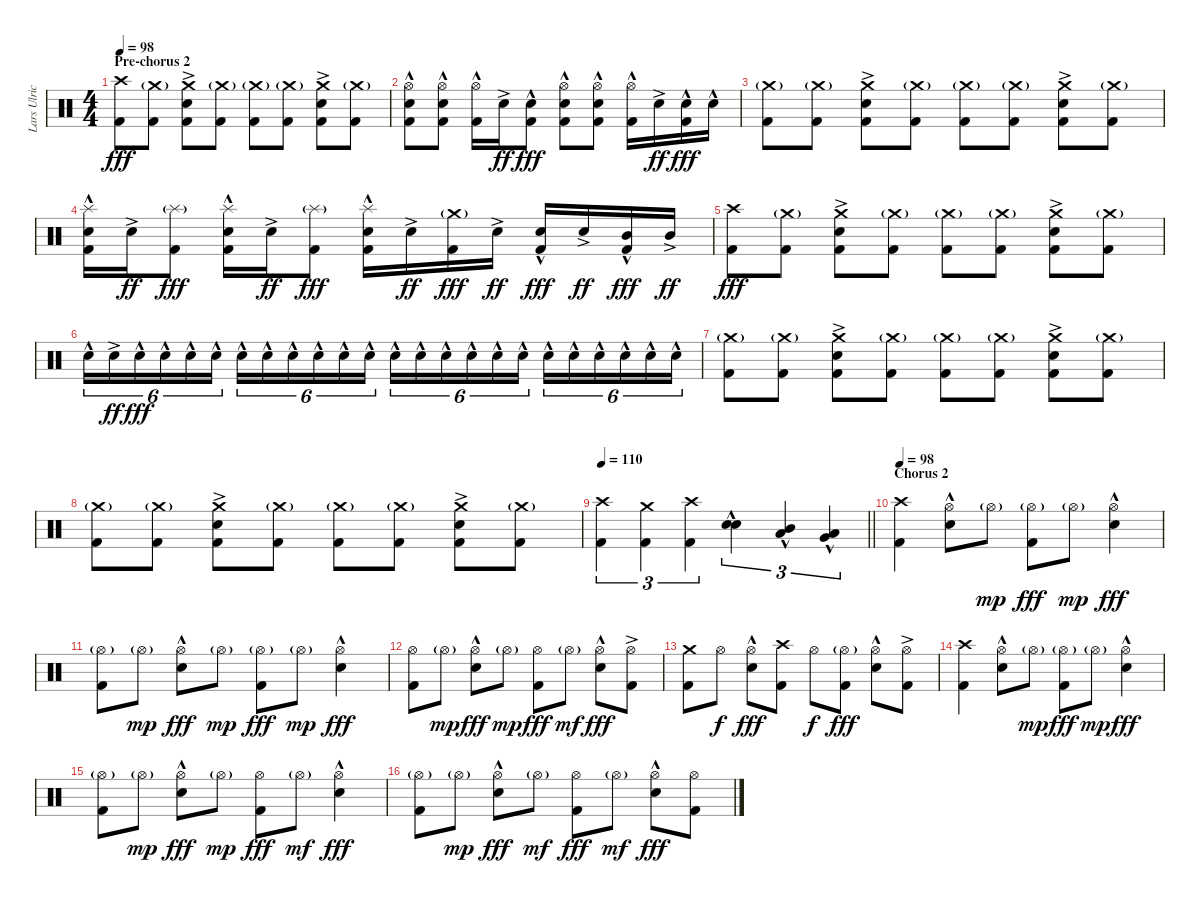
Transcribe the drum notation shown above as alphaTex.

\track ("Lars Ulrich (Drums)" "Lars Ulric") {instrument percussion}
\staff {score}
\articulation defaults
\ts (4 4)
\section ("" "Pre-chorus 2")
\tempo 98
\clef neutral
\ks c
("Crash high (hit)" "Kick (hit) 2").8{dy fff} ("Crash medium (hit)"{g} "Kick (hit) 2").8 ("Crash medium (hit)" "Electric Snare (hit)"{ac} "Kick (hit) 2").8 ("Crash medium (hit)"{g} "Kick (hit) 2").8 ("Crash medium (hit)"{g} "Kick (hit) 2").8 ("Crash medium (hit)"{g} "Kick (hit) 2").8 ("Crash medium (hit)" "Electric Snare (hit)"{ac} "Kick (hit) 2").8 ("Crash medium (hit)"{g} "Kick (hit) 2").8 |
("Hi-Hat (open)"{hac} "Electric Snare (hit)"{hac} "Kick (hit) 2").8 ("Hi-Hat (open)"{hac} "Electric Snare (hit)"{hac} "Kick (hit) 2").8 ("Hi-Hat (open)"{hac} "Kick (hit) 2").16 "Electric Snare (hit)"{ac}.16{dy ff} ("Electric Snare (hit)"{hac} "Kick (hit) 2").8{dy fff} ("Hi-Hat (open)"{hac} "Electric Snare (hit)"{hac} "Kick (hit) 2").8 ("Hi-Hat (open)"{hac} "Electric Snare (hit)"{hac} "Kick (hit) 2").8 ("Hi-Hat (open)"{hac} "Kick (hit) 2").16 "Electric Snare (hit)"{ac}.16{dy ff} ("Electric Snare (hit)"{hac} "Kick (hit) 2").16{dy fff} "Electric Snare (hit)"{hac}.16 |
("Crash medium (hit)"{g} "Kick (hit) 2").8 ("Crash medium (hit)"{g} "Kick (hit) 2").8 ("Crash medium (hit)" "Electric Snare (hit)"{ac} "Kick (hit) 2").8 ("Crash medium (hit)"{g} "Kick (hit) 2").8 ("Crash medium (hit)"{g} "Kick (hit) 2").8 ("Crash medium (hit)"{g} "Kick (hit) 2").8 ("Crash medium (hit)" "Electric Snare (hit)"{ac} "Kick (hit) 2").8 ("Crash medium (hit)"{g} "Kick (hit) 2").8 |
("Splash (hit)" "Electric Snare (hit)"{hac} "Kick (hit) 2").16 "Electric Snare (hit)"{ac}.16{dy ff} ("Splash (hit)"{g} "Kick (hit) 2").8{dy fff} ("Splash (hit)" "Electric Snare (hit)"{hac} "Kick (hit) 2").16 "Electric Snare (hit)"{ac}.16{dy ff} ("Splash (hit)"{g} "Kick (hit) 2").8{dy fff} ("Splash (hit)" "Electric Snare (hit)"{hac} "Kick (hit) 2").16 "Electric Snare (hit)"{ac}.16{dy ff} ("Crash medium (hit)"{g} "Kick (hit) 2").16{dy fff} "Electric Snare (hit)"{ac}.16{dy ff} ("Electric Snare (hit)"{hac} "Kick (hit) 2").16{dy fff} "Electric Snare (hit)"{ac}.16{dy ff} ("Mid Tom (hit)"{hac} "Kick (hit) 2").16{dy fff} "Mid Tom (hit)"{ac}.16{dy ff} |
("Crash high (hit)" "Kick (hit) 2").8{dy fff} ("Crash medium (hit)"{g} "Kick (hit) 2").8 ("Crash medium (hit)" "Electric Snare (hit)"{ac} "Kick (hit) 2").8 ("Crash medium (hit)"{g} "Kick (hit) 2").8 ("Crash medium (hit)"{g} "Kick (hit) 2").8 ("Crash medium (hit)"{g} "Kick (hit) 2").8 ("Crash medium (hit)" "Electric Snare (hit)"{ac} "Kick (hit) 2").8 ("Crash medium (hit)"{g} "Kick (hit) 2").8 |
"Electric Snare (hit)"{hac}.16{tu (6 4)} "Electric Snare (hit)"{ac}.16{tu (6 4) dy ff} "Electric Snare (hit)"{hac}.16{tu (6 4) dy fff} "Electric Snare (hit)"{hac}.16{tu (6 4)} "Electric Snare (hit)"{hac}.16{tu (6 4)} "Electric Snare (hit)"{hac}.16{tu (6 4)} "Electric Snare (hit)"{hac}.16{tu (6 4)} "Electric Snare (hit)"{hac}.16{tu (6 4)} "Electric Snare (hit)"{hac}.16{tu (6 4)} "Electric Snare (hit)"{hac}.16{tu (6 4)} "Electric Snare (hit)"{hac}.16{tu (6 4)} "Electric Snare (hit)"{hac}.16{tu (6 4)} "Electric Snare (hit)"{hac}.16{tu (6 4)} "Electric Snare (hit)"{hac}.16{tu (6 4)} "Electric Snare (hit)"{hac}.16{tu (6 4)} "Electric Snare (hit)"{hac}.16{tu (6 4)} "Electric Snare (hit)"{hac}.16{tu (6 4)} "Electric Snare (hit)"{hac}.16{tu (6 4)} "Electric Snare (hit)"{hac}.16{tu (6 4)} "Electric Snare (hit)"{hac}.16{tu (6 4)} "Electric Snare (hit)"{hac}.16{tu (6 4)} "Electric Snare (hit)"{hac}.16{tu (6 4)} "Electric Snare (hit)"{hac}.16{tu (6 4)} "Electric Snare (hit)"{hac}.16{tu (6 4)} |
("Crash medium (hit)"{g} "Kick (hit) 2").8 ("Crash medium (hit)"{g} "Kick (hit) 2").8 ("Crash medium (hit)" "Electric Snare (hit)"{ac} "Kick (hit) 2").8 ("Crash medium (hit)"{g} "Kick (hit) 2").8 ("Crash medium (hit)"{g} "Kick (hit) 2").8 ("Crash medium (hit)"{g} "Kick (hit) 2").8 ("Crash medium (hit)" "Electric Snare (hit)"{ac} "Kick (hit) 2").8 ("Crash medium (hit)"{g} "Kick (hit) 2").8 |
("Crash medium (hit)"{g} "Kick (hit) 2").8 ("Crash medium (hit)"{g} "Kick (hit) 2").8 ("Crash medium (hit)" "Electric Snare (hit)"{ac} "Kick (hit) 2").8 ("Crash medium (hit)"{g} "Kick (hit) 2").8 ("Crash medium (hit)"{g} "Kick (hit) 2").8 ("Crash medium (hit)"{g} "Kick (hit) 2").8 ("Crash medium (hit)" "Electric Snare (hit)"{ac} "Kick (hit) 2").8 ("Crash medium (hit)"{g} "Kick (hit) 2").8 |
\tempo 110
\barLineRight lightlight
("Crash high (hit)" "Kick (hit) 2").4{tu (3 2)} ("Crash medium (hit)" "Kick (hit) 2").4{tu (3 2)} ("Crash high (hit)" "Kick (hit) 2").4{tu (3 2)} ("Electric Snare (hit)"{hac} "Electric Snare (hit)"{hac}).4{tu (3 2) bd 60} ("Mid Tom (hit)"{hac} "Low Tom (hit)"{hac}).4{tu (3 2) bu 60} ("Low Tom (hit)"{hac} "Very Low Tom (hit)"{hac}).4{tu (3 2) bu 60} |
\section ("" "Chorus 2")
\tempo 98
("Crash high (hit)" "Kick (hit) 2").4 ("Hi-Hat (open)"{hac} "Electric Snare (hit)"{hac}).8 "Hi-Hat (open)"{g}.8{dy mp} ("Hi-Hat (open)"{g} "Kick (hit) 2").8{dy fff} "Hi-Hat (open)"{g}.8{dy mp} ("Hi-Hat (open)"{hac} "Electric Snare (hit)"{hac}).4{dy fff} |
("Hi-Hat (open)"{g} "Kick (hit) 2").8 "Hi-Hat (open)"{g}.8{dy mp} ("Hi-Hat (open)"{hac} "Electric Snare (hit)"{hac}).8{dy fff} "Hi-Hat (open)"{g}.8{dy mp} ("Hi-Hat (open)"{g} "Kick (hit) 2").8{dy fff} "Hi-Hat (open)"{g}.8{dy mp} ("Hi-Hat (open)"{hac} "Electric Snare (hit)"{hac}).4{dy fff} |
("Hi-Hat (open)" "Kick (hit) 2").8 "Hi-Hat (open)"{g}.8{dy mp} ("Hi-Hat (open)"{hac} "Electric Snare (hit)"{hac}).8{dy fff} "Hi-Hat (open)"{g}.8{dy mp} ("Hi-Hat (open)" "Kick (hit) 2").8{dy fff} "Hi-Hat (open)"{g}.8{dy mf} ("Hi-Hat (open)"{hac} "Electric Snare (hit)"{hac}).8{dy fff} ("Hi-Hat (open)"{ac} "Kick (hit) 2").8 |
("Crash medium (hit)" "Kick (hit) 2").8 "Hi-Hat (open)".8{dy f} ("Hi-Hat (open)"{hac} "Electric Snare (hit)"{hac}).8{dy fff} ("Crash high (hit)" "Kick (hit) 2").8 "Hi-Hat (open)".8{dy f} ("Hi-Hat (open)"{g} "Kick (hit) 2").8{dy fff} ("Hi-Hat (open)"{hac} "Electric Snare (hit)"{hac}).8 ("Hi-Hat (open)"{ac} "Kick (hit) 2").8 |
("Crash high (hit)" "Kick (hit) 2").4 ("Hi-Hat (open)"{hac} "Electric Snare (hit)"{hac}).8 "Hi-Hat (open)"{g}.8{dy mp} ("Hi-Hat (open)"{g} "Kick (hit) 2").8{dy fff} "Hi-Hat (open)"{g}.8{dy mp} ("Hi-Hat (open)"{hac} "Electric Snare (hit)"{hac}).4{dy fff} |
("Hi-Hat (open)"{g} "Kick (hit) 2").8 "Hi-Hat (open)"{g}.8{dy mp} ("Hi-Hat (open)"{hac} "Electric Snare (hit)"{hac}).8{dy fff} "Hi-Hat (open)"{g}.8{dy mp} ("Hi-Hat (open)" "Kick (hit) 2").8{dy fff} "Hi-Hat (open)"{g}.8{dy mf} ("Hi-Hat (open)"{hac} "Electric Snare (hit)"{hac}).4{dy fff} |
("Hi-Hat (open)"{g} "Kick (hit) 2").8 "Hi-Hat (open)"{g}.8{dy mp} ("Hi-Hat (open)"{hac} "Electric Snare (hit)"{hac}).8{dy fff} "Hi-Hat (open)"{g}.8{dy mf} ("Hi-Hat (open)" "Kick (hit) 2").8{dy fff} "Hi-Hat (open)"{g}.8{dy mf} ("Hi-Hat (open)"{hac} "Electric Snare (hit)"{hac}).8{dy fff} ("Hi-Hat (open)" "Kick (hit) 2").8
